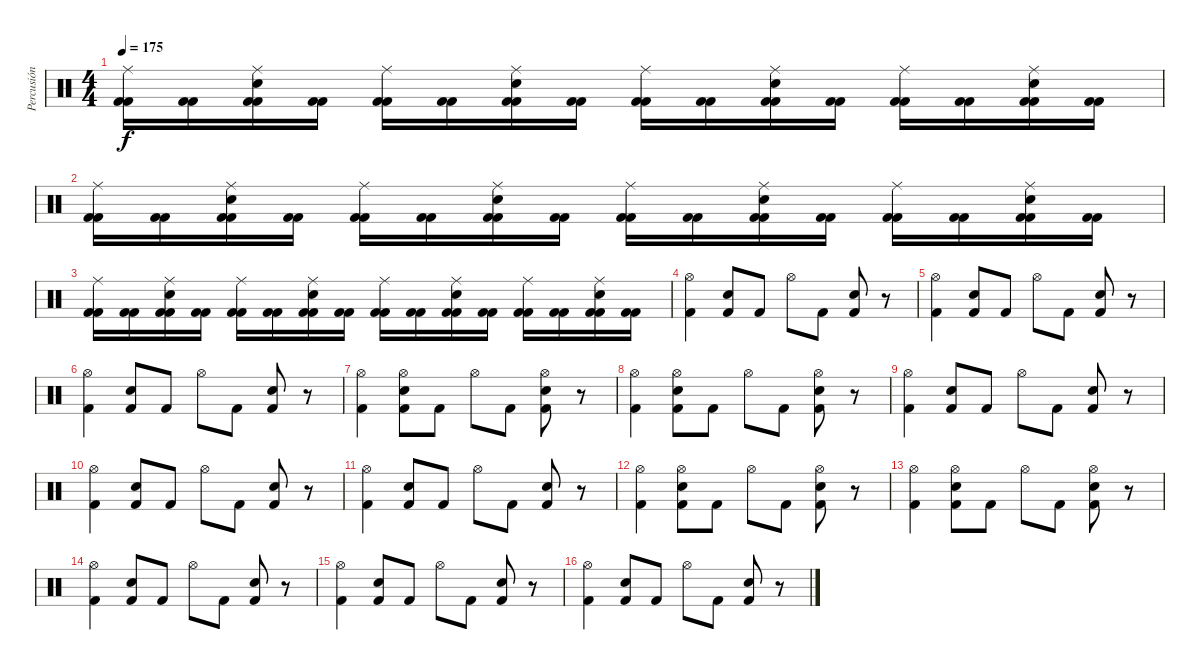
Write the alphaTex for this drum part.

\track ("Percusión" "Percusión") {instrument percussion}
\staff {score}
\articulation defaults
\ts (4 4)
\tempo 175
\clef neutral
\ks c
("Kick (hit) 2" "Kick (hit) 2" "Ride (middle)").16{dy f} ("Kick (hit) 2" "Kick (hit) 2").16 ("Kick (hit) 2" "Kick (hit) 2" "Electric Snare (hit)" "Ride (middle)").16 ("Kick (hit) 2" "Kick (hit) 2").16 ("Kick (hit) 2" "Kick (hit) 2" "Ride (middle)").16 ("Kick (hit) 2" "Kick (hit) 2").16 ("Kick (hit) 2" "Kick (hit) 2" "Electric Snare (hit)" "Ride (middle)").16 ("Kick (hit) 2" "Kick (hit) 2").16 ("Kick (hit) 2" "Kick (hit) 2" "Ride (middle)").16 ("Kick (hit) 2" "Kick (hit) 2").16 ("Kick (hit) 2" "Kick (hit) 2" "Electric Snare (hit)" "Ride (middle)").16 ("Kick (hit) 2" "Kick (hit) 2").16 ("Kick (hit) 2" "Kick (hit) 2" "Ride (middle)").16 ("Kick (hit) 2" "Kick (hit) 2").16 ("Kick (hit) 2" "Kick (hit) 2" "Electric Snare (hit)" "Ride (middle)").16 ("Kick (hit) 2" "Kick (hit) 2").16 |
("Kick (hit) 2" "Kick (hit) 2" "Ride (middle)").16 ("Kick (hit) 2" "Kick (hit) 2").16 ("Kick (hit) 2" "Kick (hit) 2" "Electric Snare (hit)" "Ride (middle)").16 ("Kick (hit) 2" "Kick (hit) 2").16 ("Kick (hit) 2" "Kick (hit) 2" "Ride (middle)").16 ("Kick (hit) 2" "Kick (hit) 2").16 ("Kick (hit) 2" "Kick (hit) 2" "Electric Snare (hit)" "Ride (middle)").16 ("Kick (hit) 2" "Kick (hit) 2").16 ("Kick (hit) 2" "Kick (hit) 2" "Ride (middle)").16 ("Kick (hit) 2" "Kick (hit) 2").16 ("Kick (hit) 2" "Kick (hit) 2" "Electric Snare (hit)" "Ride (middle)").16 ("Kick (hit) 2" "Kick (hit) 2").16 ("Kick (hit) 2" "Kick (hit) 2" "Ride (middle)").16 ("Kick (hit) 2" "Kick (hit) 2").16 ("Kick (hit) 2" "Kick (hit) 2" "Electric Snare (hit)" "Ride (middle)").16 ("Kick (hit) 2" "Kick (hit) 2").16 |
("Kick (hit) 2" "Kick (hit) 2" "Ride (middle)").16 ("Kick (hit) 2" "Kick (hit) 2").16 ("Kick (hit) 2" "Kick (hit) 2" "Electric Snare (hit)" "Ride (middle)").16 ("Kick (hit) 2" "Kick (hit) 2").16 ("Kick (hit) 2" "Kick (hit) 2" "Ride (middle)").16 ("Kick (hit) 2" "Kick (hit) 2").16 ("Kick (hit) 2" "Kick (hit) 2" "Electric Snare (hit)" "Ride (middle)").16 ("Kick (hit) 2" "Kick (hit) 2").16 ("Kick (hit) 2" "Kick (hit) 2" "Ride (middle)").16 ("Kick (hit) 2" "Kick (hit) 2").16 ("Kick (hit) 2" "Kick (hit) 2" "Electric Snare (hit)" "Ride (middle)").16 ("Kick (hit) 2" "Kick (hit) 2").16 ("Kick (hit) 2" "Kick (hit) 2" "Ride (middle)").16 ("Kick (hit) 2" "Kick (hit) 2").16 ("Kick (hit) 2" "Kick (hit) 2" "Electric Snare (hit)" "Ride (middle)").16 ("Kick (hit) 2" "Kick (hit) 2").16 |
("Kick (hit) 2" "Hi-Hat (open)").4 ("Kick (hit) 2" "Electric Snare (hit)").8 "Kick (hit) 2".8 "Hi-Hat (open)".8 "Kick (hit) 2".8 ("Kick (hit) 2" "Electric Snare (hit)").8 r.8 |
("Kick (hit) 2" "Hi-Hat (open)").4 ("Kick (hit) 2" "Electric Snare (hit)").8 "Kick (hit) 2".8 "Hi-Hat (open)".8 "Kick (hit) 2".8 ("Kick (hit) 2" "Electric Snare (hit)").8 r.8 |
("Kick (hit) 2" "Hi-Hat (open)").4 ("Kick (hit) 2" "Electric Snare (hit)").8 "Kick (hit) 2".8 "Hi-Hat (open)".8 "Kick (hit) 2".8 ("Kick (hit) 2" "Electric Snare (hit)").8 r.8 |
("Kick (hit) 2" "Hi-Hat (open)").4 ("Kick (hit) 2" "Electric Snare (hit)" "Hi-Hat (open)").8 "Kick (hit) 2".8 "Hi-Hat (open)".8 "Kick (hit) 2".8 ("Kick (hit) 2" "Electric Snare (hit)" "Hi-Hat (open)").8 r.8 |
("Kick (hit) 2" "Hi-Hat (open)").4 ("Kick (hit) 2" "Electric Snare (hit)" "Hi-Hat (open)").8 "Kick (hit) 2".8 "Hi-Hat (open)".8 "Kick (hit) 2".8 ("Kick (hit) 2" "Electric Snare (hit)" "Hi-Hat (open)").8 r.8 |
("Kick (hit) 2" "Hi-Hat (open)").4 ("Kick (hit) 2" "Electric Snare (hit)").8 "Kick (hit) 2".8 "Hi-Hat (open)".8 "Kick (hit) 2".8 ("Kick (hit) 2" "Electric Snare (hit)").8 r.8 |
("Kick (hit) 2" "Hi-Hat (open)").4 ("Kick (hit) 2" "Electric Snare (hit)").8 "Kick (hit) 2".8 "Hi-Hat (open)".8 "Kick (hit) 2".8 ("Kick (hit) 2" "Electric Snare (hit)").8 r.8 |
("Kick (hit) 2" "Hi-Hat (open)").4 ("Kick (hit) 2" "Electric Snare (hit)").8 "Kick (hit) 2".8 "Hi-Hat (open)".8 "Kick (hit) 2".8 ("Kick (hit) 2" "Electric Snare (hit)").8 r.8 |
("Kick (hit) 2" "Hi-Hat (open)").4 ("Kick (hit) 2" "Electric Snare (hit)" "Hi-Hat (open)").8 "Kick (hit) 2".8 "Hi-Hat (open)".8 "Kick (hit) 2".8 ("Kick (hit) 2" "Electric Snare (hit)" "Hi-Hat (open)").8 r.8 |
("Kick (hit) 2" "Hi-Hat (open)").4 ("Kick (hit) 2" "Electric Snare (hit)" "Hi-Hat (open)").8 "Kick (hit) 2".8 "Hi-Hat (open)".8 "Kick (hit) 2".8 ("Kick (hit) 2" "Electric Snare (hit)" "Hi-Hat (open)").8 r.8 |
("Kick (hit) 2" "Hi-Hat (open)").4 ("Kick (hit) 2" "Electric Snare (hit)").8 "Kick (hit) 2".8 "Hi-Hat (open)".8 "Kick (hit) 2".8 ("Kick (hit) 2" "Electric Snare (hit)").8 r.8 |
("Kick (hit) 2" "Hi-Hat (open)").4 ("Kick (hit) 2" "Electric Snare (hit)").8 "Kick (hit) 2".8 "Hi-Hat (open)".8 "Kick (hit) 2".8 ("Kick (hit) 2" "Electric Snare (hit)").8 r.8 |
("Kick (hit) 2" "Hi-Hat (open)").4 ("Kick (hit) 2" "Electric Snare (hit)").8 "Kick (hit) 2".8 "Hi-Hat (open)".8 "Kick (hit) 2".8 ("Kick (hit) 2" "Electric Snare (hit)").8 r.8
